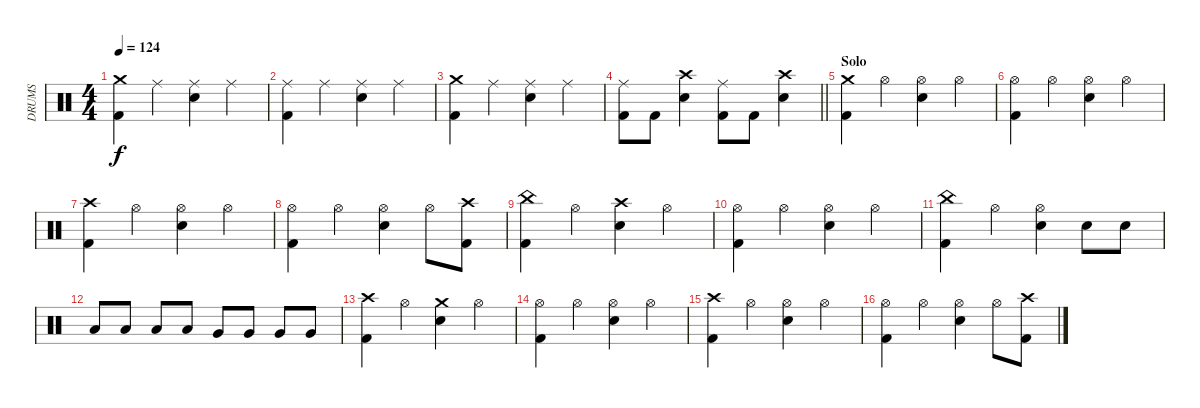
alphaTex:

\track ("DRUMS" "DRUMS") {instrument percussion}
\staff {score}
\articulation defaults
\ts (4 4)
\tempo 124
\clef neutral
\ks c
("Crash medium (hit)" "Kick (hit) 2").4{dy f} "Ride (middle)".4 ("Ride (middle)" "Snare (hit) 2").4 "Ride (middle)".4 |
("Ride (middle)" "Kick (hit) 2").4 "Ride (middle)".4 ("Ride (middle)" "Snare (hit) 2").4 "Ride (middle)".4 |
("Crash medium (hit)" "Kick (hit) 2").4 "Ride (middle)".4 ("Ride (middle)" "Snare (hit) 2").4 "Ride (middle)".4 |
\barLineRight lightlight
("Ride (middle)" "Kick (hit) 2").8 "Kick (hit) 2".8 ("Crash high (hit)" "Snare (hit) 2").4 ("Ride (middle)" "Kick (hit) 2").8 "Kick (hit) 2".8 ("Crash high (hit)" "Snare (hit) 2").4 |
\section ("" "Solo")
("Crash medium (hit)" "Kick (hit) 2").4 "Hi-Hat (open)".4 ("Hi-Hat (open)" "Snare (hit) 2").4 "Hi-Hat (open)".4 |
("Hi-Hat (open)" "Kick (hit) 2").4 "Hi-Hat (open)".4 ("Hi-Hat (open)" "Snare (hit) 2").4 "Hi-Hat (open)".4 |
("Crash high (hit)" "Kick (hit) 2").4 "Hi-Hat (open)".4 ("Hi-Hat (open)" "Snare (hit) 2").4 "Hi-Hat (open)".4 |
("Hi-Hat (open)" "Kick (hit) 2").4 "Hi-Hat (open)".4 ("Hi-Hat (open)" "Snare (hit) 2").4 "Hi-Hat (open)".8 ("Crash high (hit)" "Kick (hit) 2").8 |
("China (hit)" "Kick (hit) 2").4 "Hi-Hat (open)".4 ("Crash high (hit)" "Snare (hit) 2").4 "Hi-Hat (open)".4 |
("Hi-Hat (open)" "Kick (hit) 2").4 "Hi-Hat (open)".4 ("Hi-Hat (open)" "Snare (hit) 2").4 "Hi-Hat (open)".4 |
("China (hit)" "Kick (hit) 2").4 "Hi-Hat (open)".4 ("Hi-Hat (open)" "Snare (hit) 2").4 "Snare (hit) 2".8 "Snare (hit) 2".8 |
"Low Tom (hit)".8 "Low Tom (hit)".8 "Low Tom (hit)".8 "Low Tom (hit)".8 "Very Low Tom (hit)".8 "Very Low Tom (hit)".8 "Very Low Tom (hit)".8 "Very Low Tom (hit)".8 |
("Crash high (hit)" "Kick (hit) 2").4 "Hi-Hat (open)".4 ("Crash medium (hit)" "Snare (hit) 2").4 "Hi-Hat (open)".4 |
("Hi-Hat (open)" "Kick (hit) 2").4 "Hi-Hat (open)".4 ("Hi-Hat (open)" "Snare (hit) 2").4 "Hi-Hat (open)".4 |
("Crash high (hit)" "Kick (hit) 2").4 "Hi-Hat (open)".4 ("Hi-Hat (open)" "Snare (hit) 2").4 "Hi-Hat (open)".4 |
("Hi-Hat (open)" "Kick (hit) 2").4 "Hi-Hat (open)".4 ("Hi-Hat (open)" "Snare (hit) 2").4 "Hi-Hat (open)".8 ("Crash high (hit)" "Kick (hit) 2").8
